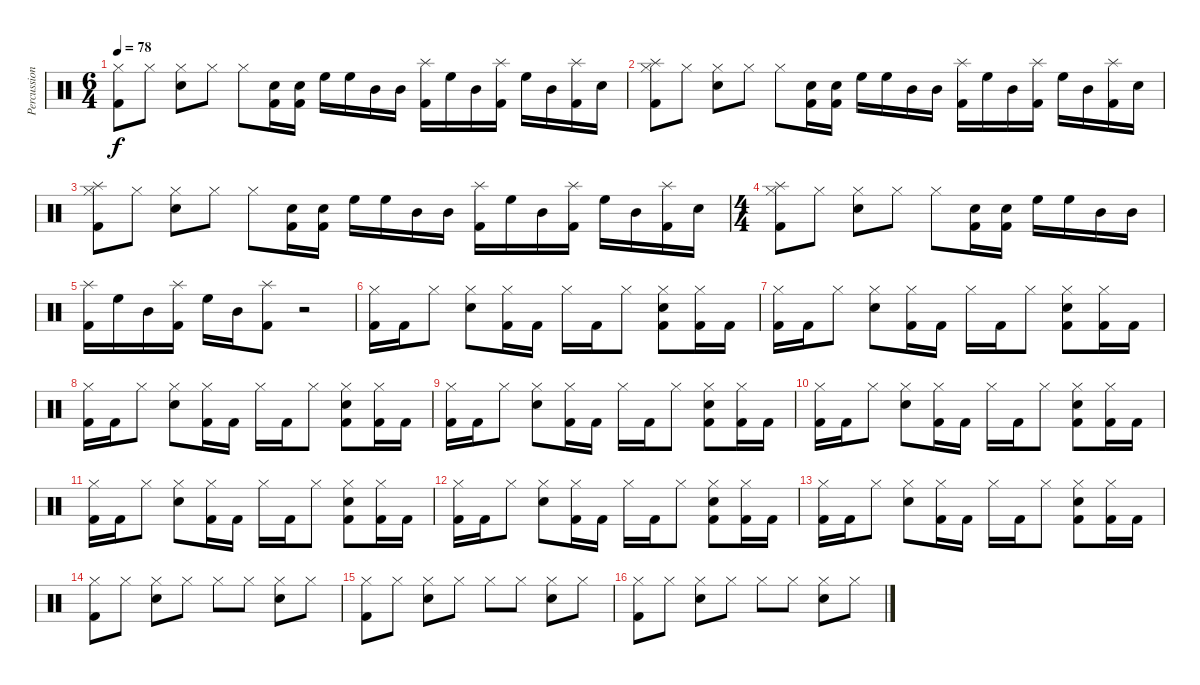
\track ("Percussion" "Percussion") {instrument percussion}
\staff {score}
\articulation defaults
\ts (6 4)
\tempo 78
\clef neutral
\ks c
("Hi-Hat (closed)" "Kick (hit) 2").8{dy f} "Hi-Hat (closed)".8 ("Hi-Hat (closed)" "Snare (hit) 2").8 "Hi-Hat (closed)".8 "Hi-Hat (closed)".8 ("Kick (hit) 2" "Snare (hit) 2").16 ("Snare (hit) 2" "Kick (hit) 2").16 "High Floor Tom (hit)".16 "High Floor Tom (hit)".16 "Mid Tom (hit)".16 "Mid Tom (hit)".16 ("Splash (hit)" "Kick (hit) 2").16 "High Floor Tom (hit)".16 "Mid Tom (hit)".16 ("Splash (hit)" "Kick (hit) 2").16 "High Floor Tom (hit)".16 "Mid Tom (hit)".16 ("Splash (hit)" "Kick (hit) 2").16 "Snare (hit) 2".16 |
("Hi-Hat (closed)" "Kick (hit) 2" "Splash (hit)").8 "Hi-Hat (closed)".8 ("Hi-Hat (closed)" "Snare (hit) 2").8 "Hi-Hat (closed)".8 "Hi-Hat (closed)".8 ("Kick (hit) 2" "Snare (hit) 2").16 ("Snare (hit) 2" "Kick (hit) 2").16 "High Floor Tom (hit)".16 "High Floor Tom (hit)".16 "Mid Tom (hit)".16 "Mid Tom (hit)".16 ("Splash (hit)" "Kick (hit) 2").16 "High Floor Tom (hit)".16 "Mid Tom (hit)".16 ("Splash (hit)" "Kick (hit) 2").16 "High Floor Tom (hit)".16 "Mid Tom (hit)".16 ("Splash (hit)" "Kick (hit) 2").16 "Snare (hit) 2".16 |
("Hi-Hat (closed)" "Kick (hit) 2" "Splash (hit)").8 "Hi-Hat (closed)".8 ("Hi-Hat (closed)" "Snare (hit) 2").8 "Hi-Hat (closed)".8 "Hi-Hat (closed)".8 ("Kick (hit) 2" "Snare (hit) 2").16 ("Snare (hit) 2" "Kick (hit) 2").16 "High Floor Tom (hit)".16 "High Floor Tom (hit)".16 "Mid Tom (hit)".16 "Mid Tom (hit)".16 ("Splash (hit)" "Kick (hit) 2").16 "High Floor Tom (hit)".16 "Mid Tom (hit)".16 ("Splash (hit)" "Kick (hit) 2").16 "High Floor Tom (hit)".16 "Mid Tom (hit)".16 ("Splash (hit)" "Kick (hit) 2").16 "Snare (hit) 2".16 |
\ts (4 4)
("Hi-Hat (closed)" "Kick (hit) 2" "Splash (hit)").8 "Hi-Hat (closed)".8 ("Hi-Hat (closed)" "Snare (hit) 2").8 "Hi-Hat (closed)".8 "Hi-Hat (closed)".8 ("Kick (hit) 2" "Snare (hit) 2").16 ("Kick (hit) 2" "Snare (hit) 2").16 "High Floor Tom (hit)".16 "High Floor Tom (hit)".16 "Mid Tom (hit)".16 "Mid Tom (hit)".16 |
("Splash (hit)" "Kick (hit) 2").16 "High Floor Tom (hit)".16 "Mid Tom (hit)".16 ("Splash (hit)" "Kick (hit) 2").16 "High Floor Tom (hit)".16 "Mid Tom (hit)".16 ("Splash (hit)" "Kick (hit) 2").8 r.2 |
("Hi-Hat (closed)" "Kick (hit) 2").16 "Kick (hit) 2".16 "Hi-Hat (closed)".8 ("Hi-Hat (closed)" "Snare (hit) 2").8 ("Hi-Hat (closed)" "Kick (hit) 2").16 "Kick (hit) 2".16 "Hi-Hat (closed)".16 "Kick (hit) 2".16 "Hi-Hat (closed)".8 ("Hi-Hat (closed)" "Snare (hit) 2" "Kick (hit) 2").8 ("Hi-Hat (closed)" "Kick (hit) 2").16 "Kick (hit) 2".16 |
("Hi-Hat (closed)" "Kick (hit) 2").16 "Kick (hit) 2".16 "Hi-Hat (closed)".8 ("Hi-Hat (closed)" "Snare (hit) 2").8 ("Hi-Hat (closed)" "Kick (hit) 2").16 "Kick (hit) 2".16 "Hi-Hat (closed)".16 "Kick (hit) 2".16 "Hi-Hat (closed)".8 ("Hi-Hat (closed)" "Snare (hit) 2" "Kick (hit) 2").8 ("Hi-Hat (closed)" "Kick (hit) 2").16 "Kick (hit) 2".16 |
("Hi-Hat (closed)" "Kick (hit) 2").16 "Kick (hit) 2".16 "Hi-Hat (closed)".8 ("Hi-Hat (closed)" "Snare (hit) 2").8 ("Hi-Hat (closed)" "Kick (hit) 2").16 "Kick (hit) 2".16 "Hi-Hat (closed)".16 "Kick (hit) 2".16 "Hi-Hat (closed)".8 ("Hi-Hat (closed)" "Snare (hit) 2" "Kick (hit) 2").8 ("Hi-Hat (closed)" "Kick (hit) 2").16 "Kick (hit) 2".16 |
("Hi-Hat (closed)" "Kick (hit) 2").16 "Kick (hit) 2".16 "Hi-Hat (closed)".8 ("Hi-Hat (closed)" "Snare (hit) 2").8 ("Hi-Hat (closed)" "Kick (hit) 2").16 "Kick (hit) 2".16 "Hi-Hat (closed)".16 "Kick (hit) 2".16 "Hi-Hat (closed)".8 ("Hi-Hat (closed)" "Snare (hit) 2" "Kick (hit) 2").8 ("Hi-Hat (closed)" "Kick (hit) 2").16 "Kick (hit) 2".16 |
("Hi-Hat (closed)" "Kick (hit) 2").16 "Kick (hit) 2".16 "Hi-Hat (closed)".8 ("Hi-Hat (closed)" "Snare (hit) 2").8 ("Hi-Hat (closed)" "Kick (hit) 2").16 "Kick (hit) 2".16 "Hi-Hat (closed)".16 "Kick (hit) 2".16 "Hi-Hat (closed)".8 ("Hi-Hat (closed)" "Snare (hit) 2" "Kick (hit) 2").8 ("Hi-Hat (closed)" "Kick (hit) 2").16 "Kick (hit) 2".16 |
("Hi-Hat (closed)" "Kick (hit) 2").16 "Kick (hit) 2".16 "Hi-Hat (closed)".8 ("Hi-Hat (closed)" "Snare (hit) 2").8 ("Hi-Hat (closed)" "Kick (hit) 2").16 "Kick (hit) 2".16 "Hi-Hat (closed)".16 "Kick (hit) 2".16 "Hi-Hat (closed)".8 ("Hi-Hat (closed)" "Snare (hit) 2" "Kick (hit) 2").8 ("Hi-Hat (closed)" "Kick (hit) 2").16 "Kick (hit) 2".16 |
("Hi-Hat (closed)" "Kick (hit) 2").16 "Kick (hit) 2".16 "Hi-Hat (closed)".8 ("Hi-Hat (closed)" "Snare (hit) 2").8 ("Hi-Hat (closed)" "Kick (hit) 2").16 "Kick (hit) 2".16 "Hi-Hat (closed)".16 "Kick (hit) 2".16 "Hi-Hat (closed)".8 ("Hi-Hat (closed)" "Snare (hit) 2" "Kick (hit) 2").8 ("Hi-Hat (closed)" "Kick (hit) 2").16 "Kick (hit) 2".16 |
("Hi-Hat (closed)" "Kick (hit) 2").16 "Kick (hit) 2".16 "Hi-Hat (closed)".8 ("Hi-Hat (closed)" "Snare (hit) 2").8 ("Hi-Hat (closed)" "Kick (hit) 2").16 "Kick (hit) 2".16 "Hi-Hat (closed)".16 "Kick (hit) 2".16 "Hi-Hat (closed)".8 ("Hi-Hat (closed)" "Snare (hit) 2" "Kick (hit) 2").8 ("Hi-Hat (closed)" "Kick (hit) 2").16 "Kick (hit) 2".16 |
("Hi-Hat (closed)" "Kick (hit) 2").8 "Hi-Hat (closed)".8 ("Hi-Hat (closed)" "Snare (hit) 2").8 "Hi-Hat (closed)".8 "Hi-Hat (closed)".8 "Hi-Hat (closed)".8 ("Hi-Hat (closed)" "Snare (hit) 2").8 "Hi-Hat (closed)".8 |
("Hi-Hat (closed)" "Kick (hit) 2").8 "Hi-Hat (closed)".8 ("Hi-Hat (closed)" "Snare (hit) 2").8 "Hi-Hat (closed)".8 "Hi-Hat (closed)".8 "Hi-Hat (closed)".8 ("Hi-Hat (closed)" "Snare (hit) 2").8 "Hi-Hat (closed)".8 |
("Hi-Hat (closed)" "Kick (hit) 2").8 "Hi-Hat (closed)".8 ("Hi-Hat (closed)" "Snare (hit) 2").8 "Hi-Hat (closed)".8 "Hi-Hat (closed)".8 "Hi-Hat (closed)".8 ("Hi-Hat (closed)" "Snare (hit) 2").8 "Hi-Hat (closed)".8
